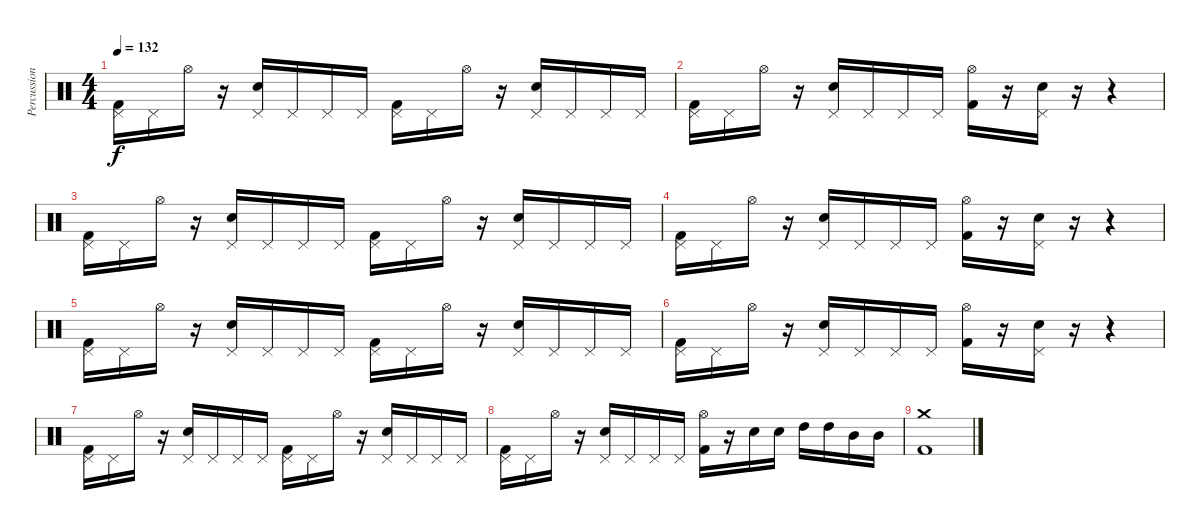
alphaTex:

\track ("Percussion" "Percussion") {instrument percussion}
\staff {score}
\articulation defaults
\ts (4 4)
\tempo 132
\clef neutral
\ks c
("Pedal Hi-Hat (hit)" "Kick (hit) 2").16{dy f} "Pedal Hi-Hat (hit)".16 "Hi-Hat (open)".16 r.16 ("Pedal Hi-Hat (hit)" "Electric Snare (hit)").16 "Pedal Hi-Hat (hit)".16 "Pedal Hi-Hat (hit)".16 "Pedal Hi-Hat (hit)".16 ("Pedal Hi-Hat (hit)" "Kick (hit) 2").16 "Pedal Hi-Hat (hit)".16 "Hi-Hat (open)".16 r.16 ("Pedal Hi-Hat (hit)" "Electric Snare (hit)").16 "Pedal Hi-Hat (hit)".16 "Pedal Hi-Hat (hit)".16 "Pedal Hi-Hat (hit)".16 |
("Pedal Hi-Hat (hit)" "Kick (hit) 2").16 "Pedal Hi-Hat (hit)".16 "Hi-Hat (open)".16 r.16 ("Pedal Hi-Hat (hit)" "Electric Snare (hit)").16 "Pedal Hi-Hat (hit)".16 "Pedal Hi-Hat (hit)".16 "Pedal Hi-Hat (hit)".16 ("Hi-Hat (open)" "Kick (hit) 2").16 r.16 ("Pedal Hi-Hat (hit)" "Electric Snare (hit)").16 r.16 r.4 |
("Pedal Hi-Hat (hit)" "Kick (hit) 2").16 "Pedal Hi-Hat (hit)".16 "Hi-Hat (open)".16 r.16 ("Pedal Hi-Hat (hit)" "Electric Snare (hit)").16 "Pedal Hi-Hat (hit)".16 "Pedal Hi-Hat (hit)".16 "Pedal Hi-Hat (hit)".16 ("Pedal Hi-Hat (hit)" "Kick (hit) 2").16 "Pedal Hi-Hat (hit)".16 "Hi-Hat (open)".16 r.16 ("Pedal Hi-Hat (hit)" "Electric Snare (hit)").16 "Pedal Hi-Hat (hit)".16 "Pedal Hi-Hat (hit)".16 "Pedal Hi-Hat (hit)".16 |
("Pedal Hi-Hat (hit)" "Kick (hit) 2").16 "Pedal Hi-Hat (hit)".16 "Hi-Hat (open)".16 r.16 ("Pedal Hi-Hat (hit)" "Electric Snare (hit)").16 "Pedal Hi-Hat (hit)".16 "Pedal Hi-Hat (hit)".16 "Pedal Hi-Hat (hit)".16 ("Hi-Hat (open)" "Kick (hit) 2").16 r.16 ("Pedal Hi-Hat (hit)" "Electric Snare (hit)").16 r.16 r.4 |
("Pedal Hi-Hat (hit)" "Kick (hit) 2").16 "Pedal Hi-Hat (hit)".16 "Hi-Hat (open)".16 r.16 ("Pedal Hi-Hat (hit)" "Electric Snare (hit)").16 "Pedal Hi-Hat (hit)".16 "Pedal Hi-Hat (hit)".16 "Pedal Hi-Hat (hit)".16 ("Pedal Hi-Hat (hit)" "Kick (hit) 2").16 "Pedal Hi-Hat (hit)".16 "Hi-Hat (open)".16 r.16 ("Pedal Hi-Hat (hit)" "Electric Snare (hit)").16 "Pedal Hi-Hat (hit)".16 "Pedal Hi-Hat (hit)".16 "Pedal Hi-Hat (hit)".16 |
("Pedal Hi-Hat (hit)" "Kick (hit) 2").16 "Pedal Hi-Hat (hit)".16 "Hi-Hat (open)".16 r.16 ("Pedal Hi-Hat (hit)" "Electric Snare (hit)").16 "Pedal Hi-Hat (hit)".16 "Pedal Hi-Hat (hit)".16 "Pedal Hi-Hat (hit)".16 ("Hi-Hat (open)" "Kick (hit) 2").16 r.16 ("Pedal Hi-Hat (hit)" "Electric Snare (hit)").16 r.16 r.4 |
("Pedal Hi-Hat (hit)" "Kick (hit) 2").16 "Pedal Hi-Hat (hit)".16 "Hi-Hat (open)".16 r.16 ("Pedal Hi-Hat (hit)" "Electric Snare (hit)").16 "Pedal Hi-Hat (hit)".16 "Pedal Hi-Hat (hit)".16 "Pedal Hi-Hat (hit)".16 ("Pedal Hi-Hat (hit)" "Kick (hit) 2").16 "Pedal Hi-Hat (hit)".16 "Hi-Hat (open)".16 r.16 ("Pedal Hi-Hat (hit)" "Electric Snare (hit)").16 "Pedal Hi-Hat (hit)".16 "Pedal Hi-Hat (hit)".16 "Pedal Hi-Hat (hit)".16 |
("Pedal Hi-Hat (hit)" "Kick (hit) 2").16 "Pedal Hi-Hat (hit)".16 "Hi-Hat (open)".16 r.16 ("Pedal Hi-Hat (hit)" "Electric Snare (hit)").16 "Pedal Hi-Hat (hit)".16 "Pedal Hi-Hat (hit)".16 "Pedal Hi-Hat (hit)".16 ("Hi-Hat (open)" "Kick (hit) 2").16 r.16 "Electric Snare (hit)".16 "Electric Snare (hit)".16 "High Tom (hit)".16 "High Tom (hit)".16 "Mid Tom (hit)".16 "Mid Tom (hit)".16 |
("Crash medium (hit)" "Kick (hit) 2").1
